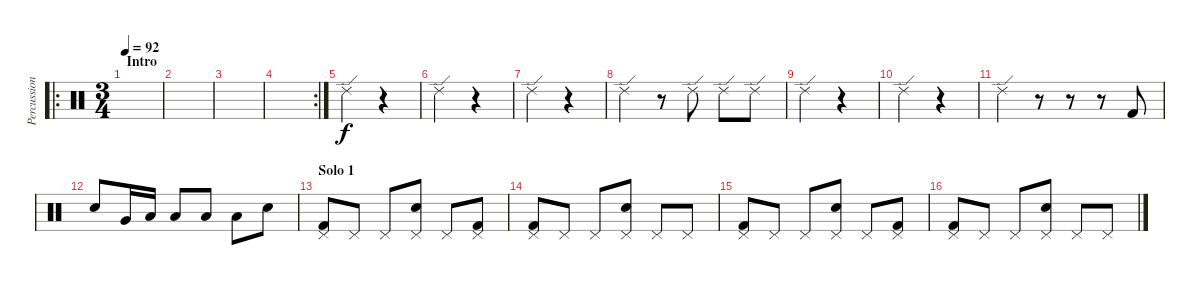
\track ("Percussion" "Percussion") {instrument percussion}
\staff {score}
\articulation defaults
\ro
\ts (3 4)
\section ("" "Intro")
\tempo 92
\clef neutral
\ks c
|
|
|
\rc 2
|
"Ride (edge) 2".4 r.4 |
"Ride (edge) 2".4 r.4 |
"Ride (edge) 2".4 r.4 |
"Ride (edge) 2".4 r.8 "Ride (edge) 2".8 "Ride (edge) 2".8 "Ride (edge) 2".8 |
"Ride (edge) 2".4 r.4 |
"Ride (edge) 2".4 r.4 |
"Ride (edge) 2".4 r.8 r.8 r.8 "Kick (hit) 2".8 |
"Electric Snare (hit)".8 "Very Low Tom (hit)".16 "Low Tom (hit)".16 "Low Tom (hit)".8 "Low Tom (hit)".8 "Low Tom (hit)".8 "Snare (hit)".8 |
\section ("" "Solo 1")
("Pedal Hi-Hat (hit)" "Kick (hit) 2").8 "Pedal Hi-Hat (hit)".8 "Pedal Hi-Hat (hit)".8 ("Pedal Hi-Hat (hit)" "Electric Snare (hit)").8 "Pedal Hi-Hat (hit)".8 ("Pedal Hi-Hat (hit)" "Kick (hit) 2").8 |
("Pedal Hi-Hat (hit)" "Kick (hit) 2").8 "Pedal Hi-Hat (hit)".8 "Pedal Hi-Hat (hit)".8 ("Pedal Hi-Hat (hit)" "Electric Snare (hit)").8 "Pedal Hi-Hat (hit)".8 "Pedal Hi-Hat (hit)".8 |
("Pedal Hi-Hat (hit)" "Kick (hit) 2").8 "Pedal Hi-Hat (hit)".8 "Pedal Hi-Hat (hit)".8 ("Pedal Hi-Hat (hit)" "Electric Snare (hit)").8 "Pedal Hi-Hat (hit)".8 ("Pedal Hi-Hat (hit)" "Kick (hit) 2").8 |
("Pedal Hi-Hat (hit)" "Kick (hit) 2").8 "Pedal Hi-Hat (hit)".8 "Pedal Hi-Hat (hit)".8 ("Pedal Hi-Hat (hit)" "Electric Snare (hit)").8 "Pedal Hi-Hat (hit)".8 "Pedal Hi-Hat (hit)".8
